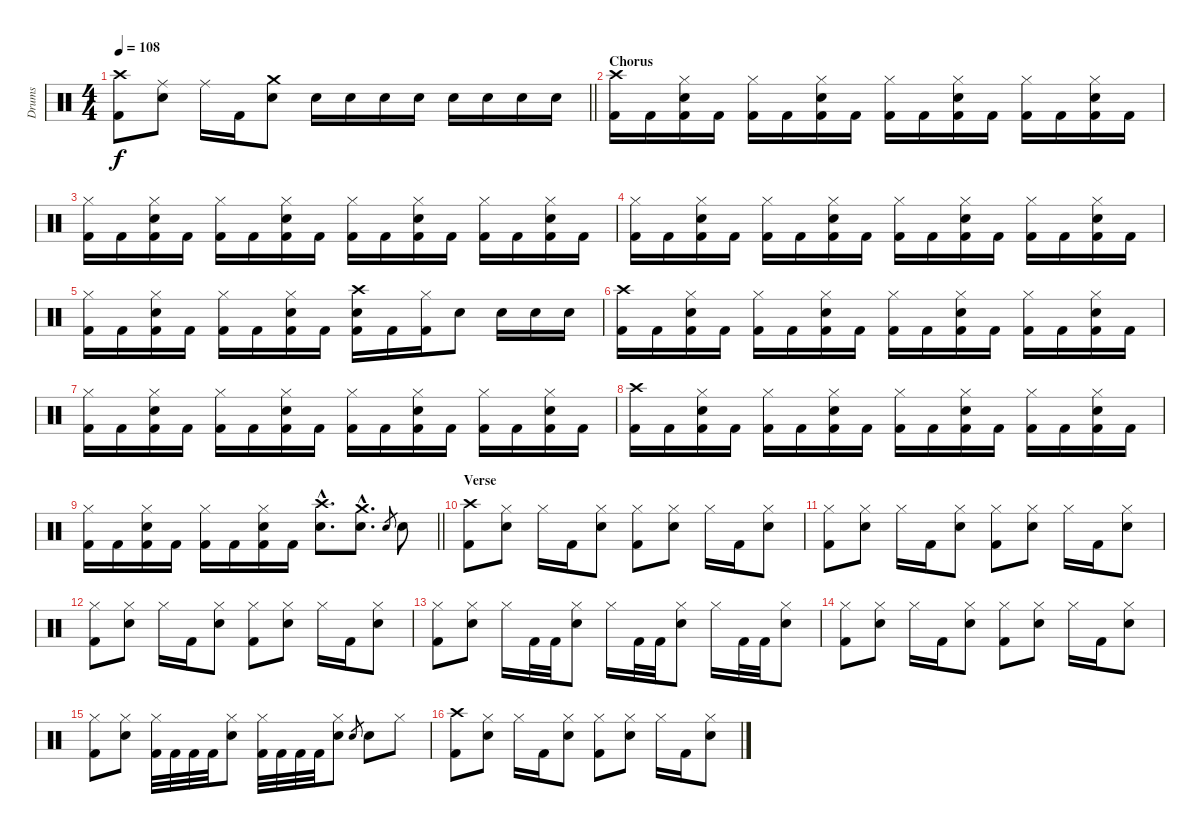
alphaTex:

\track ("Drums" "Drums") {instrument percussion}
\staff {score}
\articulation defaults
\ts (4 4)
\tempo 108
\clef neutral
\barLineRight lightlight
\ks c
("Crash high (hit)" "Kick (hit) 2").8{dy f} ("Ride (middle)" "Snare (hit) 2").8 "Ride (middle)".16 "Kick (hit) 2".16 ("Crash medium (hit)" "Snare (hit) 2").8 "Snare (hit) 2".16 "Snare (hit) 2".16 "Snare (hit) 2".16 "Snare (hit) 2".16 "Snare (hit) 2".16 "Snare (hit) 2".16 "Snare (hit) 2".16 "Snare (hit) 2".16 |
\section ("" "Chorus")
("Crash high (hit)" "Kick (hit) 2").16 "Kick (hit) 2".16 ("Hi-Hat (closed)" "Snare (hit) 2" "Kick (hit) 2").16 "Kick (hit) 2".16 ("Hi-Hat (closed)" "Kick (hit) 2").16 "Kick (hit) 2".16 ("Hi-Hat (closed)" "Snare (hit) 2" "Kick (hit) 2").16 "Kick (hit) 2".16 ("Hi-Hat (closed)" "Kick (hit) 2").16 "Kick (hit) 2".16 ("Hi-Hat (closed)" "Snare (hit) 2" "Kick (hit) 2").16 "Kick (hit) 2".16 ("Hi-Hat (closed)" "Kick (hit) 2").16 "Kick (hit) 2".16 ("Hi-Hat (closed)" "Snare (hit) 2" "Kick (hit) 2").16 "Kick (hit) 2".16 |
("Hi-Hat (closed)" "Kick (hit) 2").16 "Kick (hit) 2".16 ("Hi-Hat (closed)" "Snare (hit) 2" "Kick (hit) 2").16 "Kick (hit) 2".16 ("Hi-Hat (closed)" "Kick (hit) 2").16 "Kick (hit) 2".16 ("Hi-Hat (closed)" "Snare (hit) 2" "Kick (hit) 2").16 "Kick (hit) 2".16 ("Hi-Hat (closed)" "Kick (hit) 2").16 "Kick (hit) 2".16 ("Hi-Hat (closed)" "Snare (hit) 2" "Kick (hit) 2").16 "Kick (hit) 2".16 ("Hi-Hat (closed)" "Kick (hit) 2").16 "Kick (hit) 2".16 ("Hi-Hat (closed)" "Snare (hit) 2" "Kick (hit) 2").16 "Kick (hit) 2".16 |
("Hi-Hat (closed)" "Kick (hit) 2").16 "Kick (hit) 2".16 ("Hi-Hat (closed)" "Snare (hit) 2" "Kick (hit) 2").16 "Kick (hit) 2".16 ("Hi-Hat (closed)" "Kick (hit) 2").16 "Kick (hit) 2".16 ("Hi-Hat (closed)" "Snare (hit) 2" "Kick (hit) 2").16 "Kick (hit) 2".16 ("Hi-Hat (closed)" "Kick (hit) 2").16 "Kick (hit) 2".16 ("Hi-Hat (closed)" "Snare (hit) 2" "Kick (hit) 2").16 "Kick (hit) 2".16 ("Hi-Hat (closed)" "Kick (hit) 2").16 "Kick (hit) 2".16 ("Hi-Hat (closed)" "Snare (hit) 2" "Kick (hit) 2").16 "Kick (hit) 2".16 |
("Hi-Hat (closed)" "Kick (hit) 2").16 "Kick (hit) 2".16 ("Hi-Hat (closed)" "Snare (hit) 2" "Kick (hit) 2").16 "Kick (hit) 2".16 ("Hi-Hat (closed)" "Kick (hit) 2").16 "Kick (hit) 2".16 ("Hi-Hat (closed)" "Snare (hit) 2" "Kick (hit) 2").16 "Kick (hit) 2".16 ("Crash high (hit)" "Snare (hit) 2" "Kick (hit) 2").16 "Kick (hit) 2".16 ("Hi-Hat (closed)" "Kick (hit) 2").16 "Snare (hit) 2".8 "Snare (hit) 2".16 "Snare (hit) 2".16 "Snare (hit) 2".16 |
("Crash high (hit)" "Kick (hit) 2").16 "Kick (hit) 2".16 ("Hi-Hat (closed)" "Snare (hit) 2" "Kick (hit) 2").16 "Kick (hit) 2".16 ("Hi-Hat (closed)" "Kick (hit) 2").16 "Kick (hit) 2".16 ("Hi-Hat (closed)" "Snare (hit) 2" "Kick (hit) 2").16 "Kick (hit) 2".16 ("Hi-Hat (closed)" "Kick (hit) 2").16 "Kick (hit) 2".16 ("Hi-Hat (closed)" "Snare (hit) 2" "Kick (hit) 2").16 "Kick (hit) 2".16 ("Hi-Hat (closed)" "Kick (hit) 2").16 "Kick (hit) 2".16 ("Hi-Hat (closed)" "Snare (hit) 2" "Kick (hit) 2").16 "Kick (hit) 2".16 |
("Hi-Hat (closed)" "Kick (hit) 2").16 "Kick (hit) 2".16 ("Hi-Hat (closed)" "Snare (hit) 2" "Kick (hit) 2").16 "Kick (hit) 2".16 ("Hi-Hat (closed)" "Kick (hit) 2").16 "Kick (hit) 2".16 ("Hi-Hat (closed)" "Snare (hit) 2" "Kick (hit) 2").16 "Kick (hit) 2".16 ("Hi-Hat (closed)" "Kick (hit) 2").16 "Kick (hit) 2".16 ("Hi-Hat (closed)" "Snare (hit) 2" "Kick (hit) 2").16 "Kick (hit) 2".16 ("Hi-Hat (closed)" "Kick (hit) 2").16 "Kick (hit) 2".16 ("Hi-Hat (closed)" "Snare (hit) 2" "Kick (hit) 2").16 "Kick (hit) 2".16 |
("Crash high (hit)" "Kick (hit) 2").16 "Kick (hit) 2".16 ("Hi-Hat (closed)" "Snare (hit) 2" "Kick (hit) 2").16 "Kick (hit) 2".16 ("Hi-Hat (closed)" "Kick (hit) 2").16 "Kick (hit) 2".16 ("Hi-Hat (closed)" "Snare (hit) 2" "Kick (hit) 2").16 "Kick (hit) 2".16 ("Hi-Hat (closed)" "Kick (hit) 2").16 "Kick (hit) 2".16 ("Hi-Hat (closed)" "Snare (hit) 2" "Kick (hit) 2").16 "Kick (hit) 2".16 ("Hi-Hat (closed)" "Kick (hit) 2").16 "Kick (hit) 2".16 ("Hi-Hat (closed)" "Snare (hit) 2" "Kick (hit) 2").16 "Kick (hit) 2".16 |
\barLineRight lightlight
("Hi-Hat (closed)" "Kick (hit) 2").16 "Kick (hit) 2".16 ("Hi-Hat (closed)" "Snare (hit) 2" "Kick (hit) 2").16 "Kick (hit) 2".16 ("Hi-Hat (closed)" "Kick (hit) 2").16 "Kick (hit) 2".16 ("Hi-Hat (closed)" "Snare (hit) 2" "Kick (hit) 2").16 "Kick (hit) 2".16 ("Crash high (hit)"{hac} "Snare (hit) 2"{hac}).8{d} ("Crash medium (hit)"{hac} "Snare (hit) 2"{hac}).8{d} "Snare (hit) 2".8{gr} "Snare (hit) 2".8 |
\section ("" "Verse")
("Crash high (hit)" "Kick (hit) 2").8 ("Hi-Hat (closed)" "Snare (hit) 2").8 "Hi-Hat (closed)".16 "Kick (hit) 2".16 ("Hi-Hat (closed)" "Snare (hit) 2").8 ("Hi-Hat (closed)" "Kick (hit) 2").8 ("Hi-Hat (closed)" "Snare (hit) 2").8 "Hi-Hat (closed)".16 "Kick (hit) 2".16 ("Hi-Hat (closed)" "Snare (hit) 2").8 |
("Hi-Hat (closed)" "Kick (hit) 2").8 ("Hi-Hat (closed)" "Snare (hit) 2").8 "Hi-Hat (closed)".16 "Kick (hit) 2".16 ("Hi-Hat (closed)" "Snare (hit) 2").8 ("Hi-Hat (closed)" "Kick (hit) 2").8 ("Hi-Hat (closed)" "Snare (hit) 2").8 "Hi-Hat (closed)".16 "Kick (hit) 2".16 ("Hi-Hat (closed)" "Snare (hit) 2").8 |
("Hi-Hat (closed)" "Kick (hit) 2").8 ("Hi-Hat (closed)" "Snare (hit) 2").8 "Hi-Hat (closed)".16 "Kick (hit) 2".16 ("Hi-Hat (closed)" "Snare (hit) 2").8 ("Hi-Hat (closed)" "Kick (hit) 2").8 ("Hi-Hat (closed)" "Snare (hit) 2").8 "Hi-Hat (closed)".16 "Kick (hit) 2".16 ("Hi-Hat (closed)" "Snare (hit) 2").8 |
("Hi-Hat (closed)" "Kick (hit) 2").8 ("Hi-Hat (closed)" "Snare (hit) 2").8 "Hi-Hat (closed)".16 "Kick (hit) 2".32 "Kick (hit) 2".32 ("Hi-Hat (closed)" "Snare (hit) 2").8 "Hi-Hat (closed)".16 "Kick (hit) 2".32 "Kick (hit) 2".32 ("Hi-Hat (closed)" "Snare (hit) 2").8 "Hi-Hat (closed)".16 "Kick (hit) 2".32 "Kick (hit) 2".32 ("Hi-Hat (closed)" "Snare (hit) 2").8 |
("Hi-Hat (closed)" "Kick (hit) 2").8 ("Hi-Hat (closed)" "Snare (hit) 2").8 "Hi-Hat (closed)".16 "Kick (hit) 2".16 ("Hi-Hat (closed)" "Snare (hit) 2").8 ("Hi-Hat (closed)" "Kick (hit) 2").8 ("Hi-Hat (closed)" "Snare (hit) 2").8 "Hi-Hat (closed)".16 "Kick (hit) 2".16 ("Hi-Hat (closed)" "Snare (hit) 2").8 |
("Hi-Hat (closed)" "Kick (hit) 2").8 ("Hi-Hat (closed)" "Snare (hit) 2").8 ("Hi-Hat (closed)" "Kick (hit) 2").32 "Kick (hit) 2".32 "Kick (hit) 2".32 "Kick (hit) 2".32 ("Hi-Hat (closed)" "Snare (hit) 2").8 ("Hi-Hat (closed)" "Kick (hit) 2").32 "Kick (hit) 2".32 "Kick (hit) 2".32 "Kick (hit) 2".32 ("Hi-Hat (closed)" "Snare (hit) 2").8 "Snare (hit) 2".8{gr} "Snare (hit) 2".8 "Hi-Hat (closed)".8 |
("Crash high (hit)" "Kick (hit) 2").8 ("Hi-Hat (closed)" "Snare (hit) 2").8 "Hi-Hat (closed)".16 "Kick (hit) 2".16 ("Hi-Hat (closed)" "Snare (hit) 2").8 ("Hi-Hat (closed)" "Kick (hit) 2").8 ("Hi-Hat (closed)" "Snare (hit) 2").8 "Hi-Hat (closed)".16 "Kick (hit) 2".16 ("Hi-Hat (closed)" "Snare (hit) 2").8
